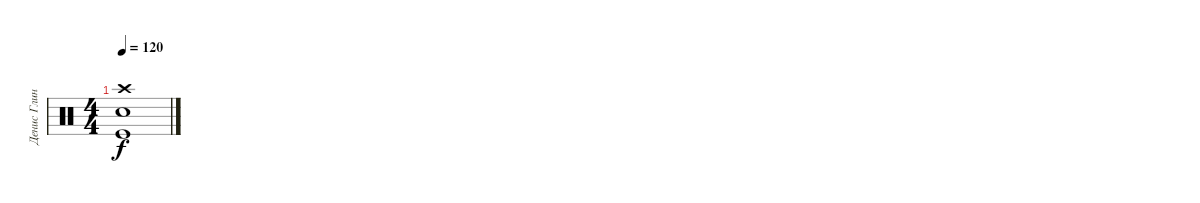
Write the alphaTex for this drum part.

\track ("Денис Глинин" "Денис Глин") {instrument percussion}
\staff {score}
\articulation defaults
\ts (4 4)
\tempo 120
\clef neutral
\ks c
("Snare (hit) 2" "Crash high (hit)" "Kick (hit)").1{dy f}
